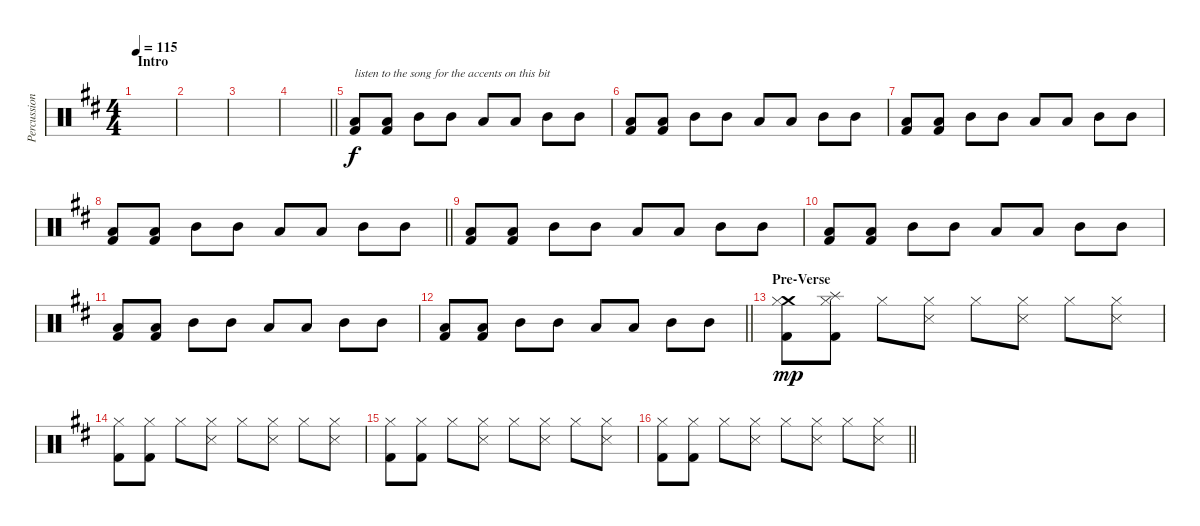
\track ("Percussion" "Percussion") {instrument percussion}
\staff {score}
\articulation defaults
\ts (4 4)
\section ("" "Intro")
\tempo 115
\clef neutral
\ks bminor
|
|
|
\barLineRight lightlight
|
\section ("" "")
("Low Tom (hit)" "Kick (hit) 2").8{txt "listen to the song for the accents on this bit"} ("Low Tom (hit)" "Kick (hit) 2").8 "Mid Tom (hit)".8 "Mid Tom (hit)".8 "Low Tom (hit)".8 "Low Tom (hit)".8 "Mid Tom (hit)".8 "Mid Tom (hit)".8 |
("Low Tom (hit)" "Kick (hit) 2").8 ("Low Tom (hit)" "Kick (hit) 2").8 "Mid Tom (hit)".8 "Mid Tom (hit)".8 "Low Tom (hit)".8 "Low Tom (hit)".8 "Mid Tom (hit)".8 "Mid Tom (hit)".8 |
("Low Tom (hit)" "Kick (hit) 2").8 ("Low Tom (hit)" "Kick (hit) 2").8 "Mid Tom (hit)".8 "Mid Tom (hit)".8 "Low Tom (hit)".8 "Low Tom (hit)".8 "Mid Tom (hit)".8 "Mid Tom (hit)".8 |
\barLineRight lightlight
("Low Tom (hit)" "Kick (hit) 2").8 ("Low Tom (hit)" "Kick (hit) 2").8 "Mid Tom (hit)".8 "Mid Tom (hit)".8 "Low Tom (hit)".8 "Low Tom (hit)".8 "Mid Tom (hit)".8 "Mid Tom (hit)".8 |
\section ("" "")
("Low Tom (hit)" "Kick (hit) 2").8 ("Low Tom (hit)" "Kick (hit) 2").8 "Mid Tom (hit)".8 "Mid Tom (hit)".8 "Low Tom (hit)".8 "Low Tom (hit)".8 "Mid Tom (hit)".8 "Mid Tom (hit)".8 |
("Low Tom (hit)" "Kick (hit) 2").8 ("Low Tom (hit)" "Kick (hit) 2").8 "Mid Tom (hit)".8 "Mid Tom (hit)".8 "Low Tom (hit)".8 "Low Tom (hit)".8 "Mid Tom (hit)".8 "Mid Tom (hit)".8 |
("Low Tom (hit)" "Kick (hit) 2").8 ("Low Tom (hit)" "Kick (hit) 2").8 "Mid Tom (hit)".8 "Mid Tom (hit)".8 "Low Tom (hit)".8 "Low Tom (hit)".8 "Mid Tom (hit)".8 "Mid Tom (hit)".8 |
\barLineRight lightlight
("Low Tom (hit)" "Kick (hit) 2").8 ("Low Tom (hit)" "Kick (hit) 2").8 "Mid Tom (hit)".8 "Mid Tom (hit)".8 "Low Tom (hit)".8 "Low Tom (hit)".8 "Mid Tom (hit)".8 "Mid Tom (hit)".8 |
\section ("" "Pre-Verse")
("Crash medium (hit)" "Hi-Hat (closed)" "Kick (hit) 2").8{dy mp} ("Splash (hit)" "Hi-Hat (closed)" "Kick (hit) 2").8 "Hi-Hat (closed)".8 ("Hi-Hat (closed)" "Snare (side stick) 3").8 "Hi-Hat (closed)".8 ("Hi-Hat (closed)" "Snare (side stick) 3").8 "Hi-Hat (closed)".8 ("Hi-Hat (closed)" "Snare (side stick) 3").8 |
("Hi-Hat (closed)" "Kick (hit) 2").8 ("Hi-Hat (closed)" "Kick (hit) 2").8 "Hi-Hat (closed)".8 ("Hi-Hat (closed)" "Snare (side stick) 3").8 "Hi-Hat (closed)".8 ("Hi-Hat (closed)" "Snare (side stick) 3").8 "Hi-Hat (closed)".8 ("Hi-Hat (closed)" "Snare (side stick) 3").8 |
("Hi-Hat (closed)" "Kick (hit) 2").8 ("Hi-Hat (closed)" "Kick (hit) 2").8 "Hi-Hat (closed)".8 ("Hi-Hat (closed)" "Snare (side stick) 3").8 "Hi-Hat (closed)".8 ("Hi-Hat (closed)" "Snare (side stick) 3").8 "Hi-Hat (closed)".8 ("Hi-Hat (closed)" "Snare (side stick) 3").8 |
\barLineRight lightlight
("Hi-Hat (closed)" "Kick (hit) 2").8 ("Hi-Hat (closed)" "Kick (hit) 2").8 "Hi-Hat (closed)".8 ("Hi-Hat (closed)" "Snare (side stick) 3").8 "Hi-Hat (closed)".8 ("Hi-Hat (closed)" "Snare (side stick) 3").8 "Hi-Hat (closed)".8 ("Hi-Hat (closed)" "Snare (side stick) 3").8
